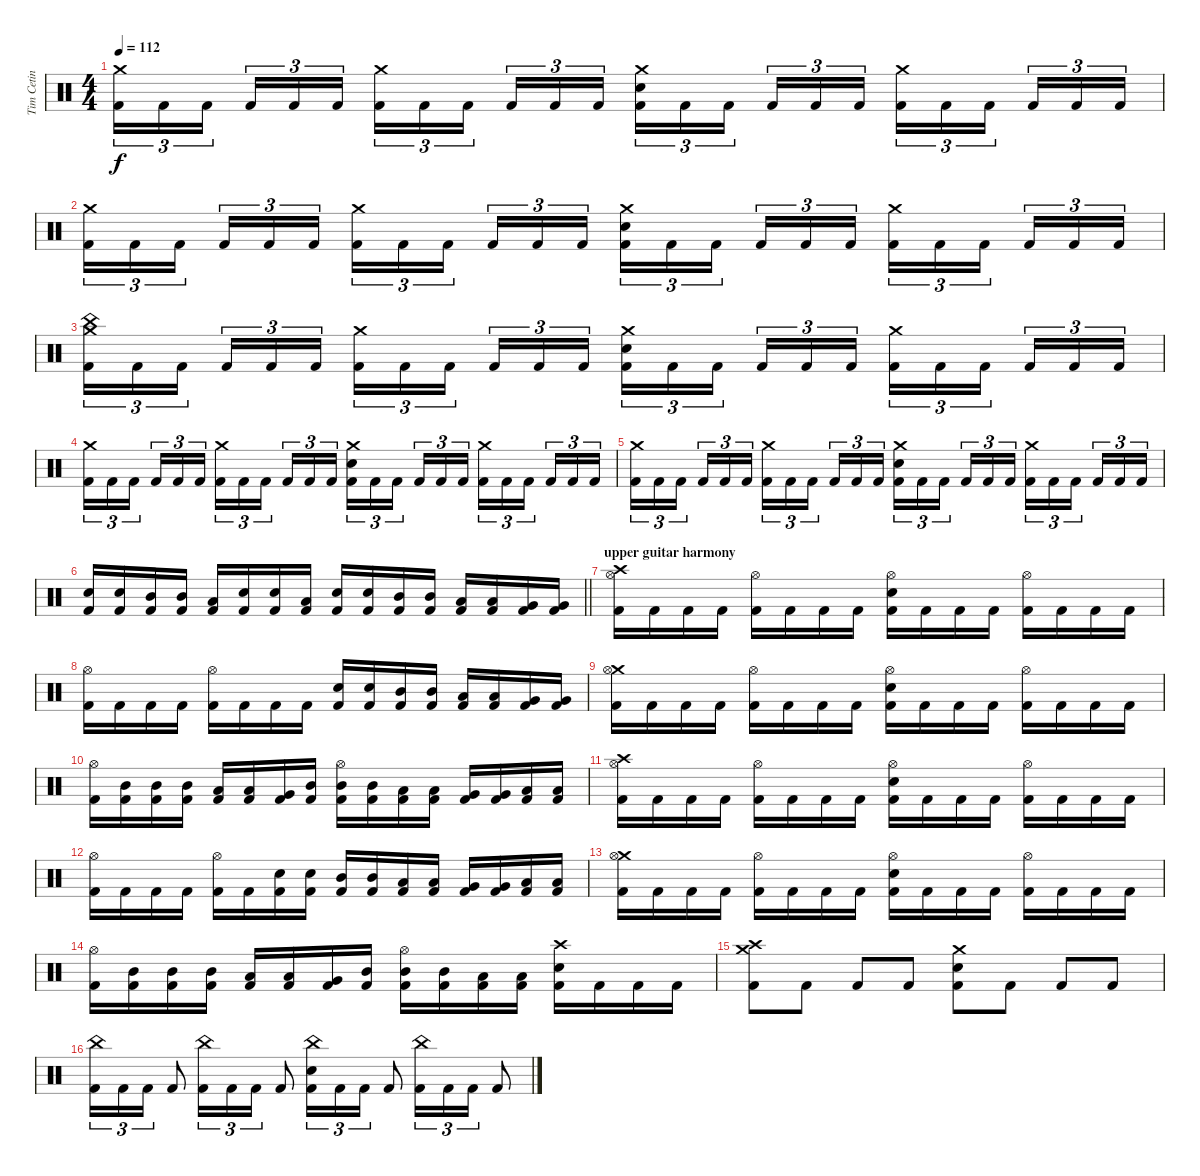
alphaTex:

\track ("Tim Cetin" "Tim Cetin") {instrument percussion}
\staff {score}
\articulation defaults
\ts (4 4)
\tempo 112
\clef neutral
\ks c
("Crash medium (hit)" "Kick (hit) 2").16{tu (3 2) dy f} "Kick (hit) 2".16{tu (3 2)} "Kick (hit) 2".16{tu (3 2) beam splitsecondary} "Kick (hit) 2".16{tu (3 2)} "Kick (hit) 2".16{tu (3 2)} "Kick (hit) 2".16{tu (3 2)} ("Crash medium (hit)" "Kick (hit) 2").16{tu (3 2)} "Kick (hit) 2".16{tu (3 2)} "Kick (hit) 2".16{tu (3 2) beam splitsecondary} "Kick (hit) 2".16{tu (3 2)} "Kick (hit) 2".16{tu (3 2)} "Kick (hit) 2".16{tu (3 2)} ("Crash medium (hit)" "Snare (hit) 2" "Kick (hit) 2").16{tu (3 2)} "Kick (hit) 2".16{tu (3 2)} "Kick (hit) 2".16{tu (3 2) beam splitsecondary} "Kick (hit) 2".16{tu (3 2)} "Kick (hit) 2".16{tu (3 2)} "Kick (hit) 2".16{tu (3 2)} ("Crash medium (hit)" "Kick (hit) 2").16{tu (3 2)} "Kick (hit) 2".16{tu (3 2)} "Kick (hit) 2".16{tu (3 2) beam splitsecondary} "Kick (hit) 2".16{tu (3 2)} "Kick (hit) 2".16{tu (3 2)} "Kick (hit) 2".16{tu (3 2)} |
("Crash medium (hit)" "Kick (hit) 2").16{tu (3 2)} "Kick (hit) 2".16{tu (3 2)} "Kick (hit) 2".16{tu (3 2) beam splitsecondary} "Kick (hit) 2".16{tu (3 2)} "Kick (hit) 2".16{tu (3 2)} "Kick (hit) 2".16{tu (3 2)} ("Crash medium (hit)" "Kick (hit) 2").16{tu (3 2)} "Kick (hit) 2".16{tu (3 2)} "Kick (hit) 2".16{tu (3 2) beam splitsecondary} "Kick (hit) 2".16{tu (3 2)} "Kick (hit) 2".16{tu (3 2)} "Kick (hit) 2".16{tu (3 2)} ("Crash medium (hit)" "Snare (hit) 2" "Kick (hit) 2").16{tu (3 2)} "Kick (hit) 2".16{tu (3 2)} "Kick (hit) 2".16{tu (3 2) beam splitsecondary} "Kick (hit) 2".16{tu (3 2)} "Kick (hit) 2".16{tu (3 2)} "Kick (hit) 2".16{tu (3 2)} ("Crash medium (hit)" "Kick (hit) 2").16{tu (3 2)} "Kick (hit) 2".16{tu (3 2)} "Kick (hit) 2".16{tu (3 2) beam splitsecondary} "Kick (hit) 2".16{tu (3 2)} "Kick (hit) 2".16{tu (3 2)} "Kick (hit) 2".16{tu (3 2)} |
("China (hit)" "Crash medium (hit)" "Kick (hit) 2").16{tu (3 2)} "Kick (hit) 2".16{tu (3 2)} "Kick (hit) 2".16{tu (3 2) beam splitsecondary} "Kick (hit) 2".16{tu (3 2)} "Kick (hit) 2".16{tu (3 2)} "Kick (hit) 2".16{tu (3 2)} ("Crash medium (hit)" "Kick (hit) 2").16{tu (3 2)} "Kick (hit) 2".16{tu (3 2)} "Kick (hit) 2".16{tu (3 2) beam splitsecondary} "Kick (hit) 2".16{tu (3 2)} "Kick (hit) 2".16{tu (3 2)} "Kick (hit) 2".16{tu (3 2)} ("Crash medium (hit)" "Snare (hit) 2" "Kick (hit) 2").16{tu (3 2)} "Kick (hit) 2".16{tu (3 2)} "Kick (hit) 2".16{tu (3 2) beam splitsecondary} "Kick (hit) 2".16{tu (3 2)} "Kick (hit) 2".16{tu (3 2)} "Kick (hit) 2".16{tu (3 2)} ("Crash medium (hit)" "Kick (hit) 2").16{tu (3 2)} "Kick (hit) 2".16{tu (3 2)} "Kick (hit) 2".16{tu (3 2) beam splitsecondary} "Kick (hit) 2".16{tu (3 2)} "Kick (hit) 2".16{tu (3 2)} "Kick (hit) 2".16{tu (3 2)} |
("Crash medium (hit)" "Kick (hit) 2").16{tu (3 2)} "Kick (hit) 2".16{tu (3 2)} "Kick (hit) 2".16{tu (3 2) beam splitsecondary} "Kick (hit) 2".16{tu (3 2)} "Kick (hit) 2".16{tu (3 2)} "Kick (hit) 2".16{tu (3 2)} ("Crash medium (hit)" "Kick (hit) 2").16{tu (3 2)} "Kick (hit) 2".16{tu (3 2)} "Kick (hit) 2".16{tu (3 2) beam splitsecondary} "Kick (hit) 2".16{tu (3 2)} "Kick (hit) 2".16{tu (3 2)} "Kick (hit) 2".16{tu (3 2)} ("Crash medium (hit)" "Snare (hit) 2" "Kick (hit) 2").16{tu (3 2)} "Kick (hit) 2".16{tu (3 2)} "Kick (hit) 2".16{tu (3 2) beam splitsecondary} "Kick (hit) 2".16{tu (3 2)} "Kick (hit) 2".16{tu (3 2)} "Kick (hit) 2".16{tu (3 2)} ("Crash medium (hit)" "Kick (hit) 2").16{tu (3 2)} "Kick (hit) 2".16{tu (3 2)} "Kick (hit) 2".16{tu (3 2) beam splitsecondary} "Kick (hit) 2".16{tu (3 2)} "Kick (hit) 2".16{tu (3 2)} "Kick (hit) 2".16{tu (3 2)} |
("Crash medium (hit)" "Kick (hit) 2").16{tu (3 2)} "Kick (hit) 2".16{tu (3 2)} "Kick (hit) 2".16{tu (3 2) beam splitsecondary} "Kick (hit) 2".16{tu (3 2)} "Kick (hit) 2".16{tu (3 2)} "Kick (hit) 2".16{tu (3 2)} ("Crash medium (hit)" "Kick (hit) 2").16{tu (3 2)} "Kick (hit) 2".16{tu (3 2)} "Kick (hit) 2".16{tu (3 2) beam splitsecondary} "Kick (hit) 2".16{tu (3 2)} "Kick (hit) 2".16{tu (3 2)} "Kick (hit) 2".16{tu (3 2)} ("Crash medium (hit)" "Snare (hit) 2" "Kick (hit) 2").16{tu (3 2)} "Kick (hit) 2".16{tu (3 2)} "Kick (hit) 2".16{tu (3 2) beam splitsecondary} "Kick (hit) 2".16{tu (3 2)} "Kick (hit) 2".16{tu (3 2)} "Kick (hit) 2".16{tu (3 2)} ("Crash medium (hit)" "Kick (hit) 2").16{tu (3 2)} "Kick (hit) 2".16{tu (3 2)} "Kick (hit) 2".16{tu (3 2) beam splitsecondary} "Kick (hit) 2".16{tu (3 2)} "Kick (hit) 2".16{tu (3 2)} "Kick (hit) 2".16{tu (3 2)} |
\barLineRight lightlight
("Snare (hit) 2" "Kick (hit) 2").16 ("Snare (hit) 2" "Kick (hit) 2").16 ("Mid Tom (hit)" "Kick (hit) 2").16 ("Mid Tom (hit)" "Kick (hit) 2").16 ("Low Tom (hit)" "Kick (hit) 2").16 ("Snare (hit) 2" "Kick (hit) 2").16 ("Snare (hit) 2" "Kick (hit) 2").16 ("Low Tom (hit)" "Kick (hit) 2").16 ("Snare (hit) 2" "Kick (hit) 2").16 ("Snare (hit) 2" "Kick (hit) 2").16 ("Mid Tom (hit)" "Kick (hit) 2").16 ("Mid Tom (hit)" "Kick (hit) 2").16 ("Low Tom (hit)" "Kick (hit) 2").16 ("Low Tom (hit)" "Kick (hit) 2").16 ("Very Low Tom (hit)" "Kick (hit) 2").16 ("Very Low Tom (hit)" "Kick (hit) 2").16 |
\section ("" "upper guitar harmony")
("Crash high (hit)" "Hi-Hat (open)" "Kick (hit) 2").16 "Kick (hit) 2".16 "Kick (hit) 2".16 "Kick (hit) 2".16 ("Hi-Hat (open)" "Kick (hit) 2").16 "Kick (hit) 2".16 "Kick (hit) 2".16 "Kick (hit) 2".16 ("Hi-Hat (open)" "Snare (hit) 2" "Kick (hit) 2").16 "Kick (hit) 2".16 "Kick (hit) 2".16 "Kick (hit) 2".16 ("Hi-Hat (open)" "Kick (hit) 2").16 "Kick (hit) 2".16 "Kick (hit) 2".16 "Kick (hit) 2".16 |
("Hi-Hat (open)" "Kick (hit) 2").16 "Kick (hit) 2".16 "Kick (hit) 2".16 "Kick (hit) 2".16 ("Hi-Hat (open)" "Kick (hit) 2").16 "Kick (hit) 2".16 "Kick (hit) 2".16 "Kick (hit) 2".16 ("Snare (hit) 2" "Kick (hit) 2").16 ("Snare (hit) 2" "Kick (hit) 2").16 ("Mid Tom (hit)" "Kick (hit) 2").16 ("Mid Tom (hit)" "Kick (hit) 2").16 ("Low Tom (hit)" "Kick (hit) 2").16 ("Low Tom (hit)" "Kick (hit) 2").16 ("Very Low Tom (hit)" "Kick (hit) 2").16 ("Very Low Tom (hit)" "Kick (hit) 2").16 |
("Crash medium (hit)" "Hi-Hat (open)" "Kick (hit) 2").16 "Kick (hit) 2".16 "Kick (hit) 2".16 "Kick (hit) 2".16 ("Hi-Hat (open)" "Kick (hit) 2").16 "Kick (hit) 2".16 "Kick (hit) 2".16 "Kick (hit) 2".16 ("Hi-Hat (open)" "Snare (hit) 2" "Kick (hit) 2").16 "Kick (hit) 2".16 "Kick (hit) 2".16 "Kick (hit) 2".16 ("Hi-Hat (open)" "Kick (hit) 2").16 "Kick (hit) 2".16 "Kick (hit) 2".16 "Kick (hit) 2".16 |
("Hi-Hat (open)" "Kick (hit) 2").16 ("Mid Tom (hit)" "Kick (hit) 2").16 ("Mid Tom (hit)" "Kick (hit) 2").16 ("Mid Tom (hit)" "Kick (hit) 2").16 ("Low Tom (hit)" "Kick (hit) 2").16 ("Low Tom (hit)" "Kick (hit) 2").16 ("Very Low Tom (hit)" "Kick (hit) 2").16 ("Mid Tom (hit)" "Kick (hit) 2").16 ("Hi-Hat (open)" "Mid Tom (hit)" "Kick (hit) 2").16 ("Mid Tom (hit)" "Kick (hit) 2").16 ("Low Tom (hit)" "Kick (hit) 2").16 ("Low Tom (hit)" "Kick (hit) 2").16 ("Very Low Tom (hit)" "Kick (hit) 2").16 ("Very Low Tom (hit)" "Kick (hit) 2").16 ("Low Floor Tom (hit)" "Kick (hit) 2").16 ("Low Floor Tom (hit)" "Kick (hit) 2").16 |
("Crash high (hit)" "Hi-Hat (open)" "Kick (hit) 2").16{volume 10} "Kick (hit) 2".16 "Kick (hit) 2".16 "Kick (hit) 2".16 ("Hi-Hat (open)" "Kick (hit) 2").16 "Kick (hit) 2".16 "Kick (hit) 2".16 "Kick (hit) 2".16 ("Hi-Hat (open)" "Snare (hit) 2" "Kick (hit) 2").16 "Kick (hit) 2".16 "Kick (hit) 2".16 "Kick (hit) 2".16 ("Hi-Hat (open)" "Kick (hit) 2").16 "Kick (hit) 2".16 "Kick (hit) 2".16 "Kick (hit) 2".16 |
("Hi-Hat (open)" "Kick (hit) 2").16 "Kick (hit) 2".16 "Kick (hit) 2".16 "Kick (hit) 2".16 ("Hi-Hat (open)" "Kick (hit) 2").16 "Kick (hit) 2".16 ("Snare (hit) 2" "Kick (hit) 2").16 ("Snare (hit) 2" "Kick (hit) 2").16 ("Mid Tom (hit)" "Kick (hit) 2").16 ("Mid Tom (hit)" "Kick (hit) 2").16 ("Low Tom (hit)" "Kick (hit) 2").16 ("Low Tom (hit)" "Kick (hit) 2").16 ("Very Low Tom (hit)" "Kick (hit) 2").16 ("Very Low Tom (hit)" "Kick (hit) 2").16 ("Low Floor Tom (hit)" "Kick (hit) 2").16 ("Low Floor Tom (hit)" "Kick (hit) 2").16 |
("Crash medium (hit)" "Hi-Hat (open)" "Kick (hit) 2").16 "Kick (hit) 2".16 "Kick (hit) 2".16 "Kick (hit) 2".16 ("Hi-Hat (open)" "Kick (hit) 2").16 "Kick (hit) 2".16 "Kick (hit) 2".16 "Kick (hit) 2".16 ("Hi-Hat (open)" "Snare (hit) 2" "Kick (hit) 2").16 "Kick (hit) 2".16 "Kick (hit) 2".16 "Kick (hit) 2".16 ("Hi-Hat (open)" "Kick (hit) 2").16 "Kick (hit) 2".16 "Kick (hit) 2".16 "Kick (hit) 2".16 |
("Hi-Hat (open)" "Kick (hit) 2").16 ("Mid Tom (hit)" "Kick (hit) 2").16 ("Mid Tom (hit)" "Kick (hit) 2").16 ("Mid Tom (hit)" "Kick (hit) 2").16 ("Low Tom (hit)" "Kick (hit) 2").16 ("Low Tom (hit)" "Kick (hit) 2").16 ("Very Low Tom (hit)" "Kick (hit) 2").16 ("Mid Tom (hit)" "Kick (hit) 2").16 ("Hi-Hat (open)" "Mid Tom (hit)" "Kick (hit) 2").16 ("Mid Tom (hit)" "Kick (hit) 2").16 ("Low Tom (hit)" "Kick (hit) 2").16 ("Low Tom (hit)" "Kick (hit) 2").16 ("Crash high (hit)" "Snare (hit) 2" "Kick (hit) 2").16 "Kick (hit) 2".16 "Kick (hit) 2".16 "Kick (hit) 2".16 |
("Crash high (hit)" "Crash medium (hit)" "Kick (hit) 2").8{volume 8} "Kick (hit) 2".8 "Kick (hit) 2".8 "Kick (hit) 2".8 ("Crash medium (hit)" "Snare (hit) 2" "Kick (hit) 2").8 "Kick (hit) 2".8 "Kick (hit) 2".8 "Kick (hit) 2".8 |
("China (hit)" "Kick (hit) 2").16{tu (3 2)} "Kick (hit) 2".16{tu (3 2)} "Kick (hit) 2".16{tu (3 2)} "Kick (hit) 2".8 ("China (hit)" "Kick (hit) 2").16{tu (3 2)} "Kick (hit) 2".16{tu (3 2)} "Kick (hit) 2".16{tu (3 2)} "Kick (hit) 2".8 ("China (hit)" "Snare (hit) 2" "Kick (hit) 2").16{tu (3 2)} "Kick (hit) 2".16{tu (3 2)} "Kick (hit) 2".16{tu (3 2)} "Kick (hit) 2".8 ("China (hit)" "Kick (hit) 2").16{tu (3 2)} "Kick (hit) 2".16{tu (3 2)} "Kick (hit) 2".16{tu (3 2)} "Kick (hit) 2".8
